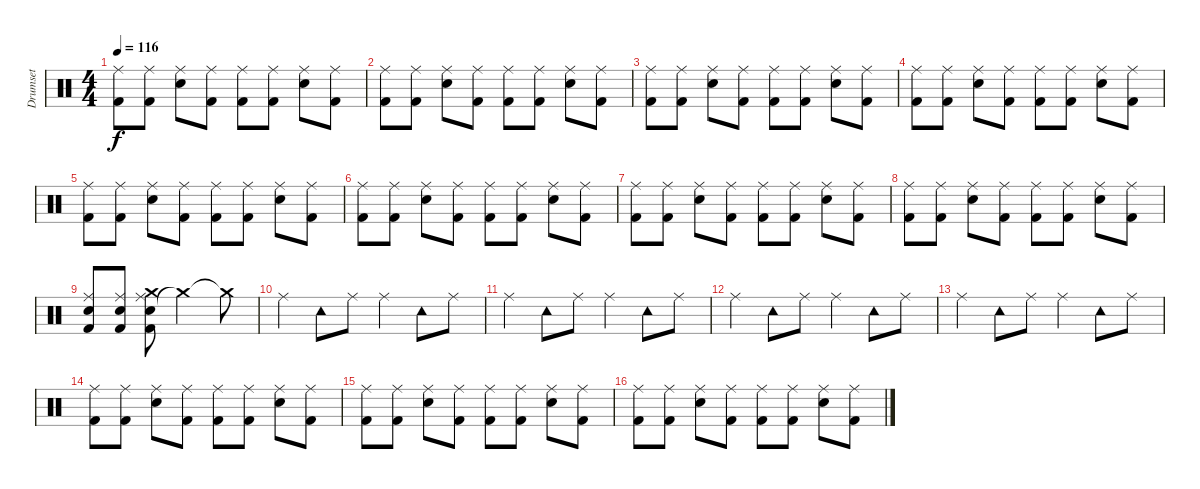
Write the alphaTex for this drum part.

\track ("Drumset" "Drumset") {instrument percussion}
\staff {score}
\articulation defaults
\ts (4 4)
\tempo 116
\clef neutral
\ks c
("Kick (hit) 2" "Ride (middle)").8{dy f} ("Kick (hit) 2" "Ride (middle)").8 ("Electric Snare (hit)" "Ride (middle)").8 ("Kick (hit) 2" "Ride (middle)").8 ("Kick (hit) 2" "Ride (middle)").8 ("Kick (hit) 2" "Ride (middle)").8 ("Electric Snare (hit)" "Ride (middle)").8 ("Kick (hit) 2" "Ride (middle)").8 |
("Kick (hit) 2" "Ride (middle)").8 ("Kick (hit) 2" "Ride (middle)").8 ("Electric Snare (hit)" "Ride (middle)").8 ("Kick (hit) 2" "Ride (middle)").8 ("Kick (hit) 2" "Ride (middle)").8 ("Kick (hit) 2" "Ride (middle)").8 ("Electric Snare (hit)" "Ride (middle)").8 ("Kick (hit) 2" "Ride (middle)").8 |
("Kick (hit) 2" "Ride (middle)").8 ("Kick (hit) 2" "Ride (middle)").8 ("Electric Snare (hit)" "Ride (middle)").8 ("Kick (hit) 2" "Ride (middle)").8 ("Kick (hit) 2" "Ride (middle)").8 ("Kick (hit) 2" "Ride (middle)").8 ("Electric Snare (hit)" "Ride (middle)").8 ("Kick (hit) 2" "Ride (middle)").8 |
("Kick (hit) 2" "Ride (middle)").8 ("Kick (hit) 2" "Ride (middle)").8 ("Electric Snare (hit)" "Ride (middle)").8 ("Kick (hit) 2" "Ride (middle)").8 ("Kick (hit) 2" "Ride (middle)").8 ("Kick (hit) 2" "Ride (middle)").8 ("Electric Snare (hit)" "Ride (middle)").8 ("Kick (hit) 2" "Ride (middle)").8 |
("Kick (hit) 2" "Ride (middle)").8 ("Kick (hit) 2" "Ride (middle)").8 ("Electric Snare (hit)" "Ride (middle)").8 ("Kick (hit) 2" "Ride (middle)").8 ("Kick (hit) 2" "Ride (middle)").8 ("Kick (hit) 2" "Ride (middle)").8 ("Electric Snare (hit)" "Ride (middle)").8 ("Kick (hit) 2" "Ride (middle)").8 |
("Kick (hit) 2" "Ride (middle)").8 ("Kick (hit) 2" "Ride (middle)").8 ("Electric Snare (hit)" "Ride (middle)").8 ("Kick (hit) 2" "Ride (middle)").8 ("Kick (hit) 2" "Ride (middle)").8 ("Kick (hit) 2" "Ride (middle)").8 ("Electric Snare (hit)" "Ride (middle)").8 ("Kick (hit) 2" "Ride (middle)").8 |
("Kick (hit) 2" "Ride (middle)").8 ("Kick (hit) 2" "Ride (middle)").8 ("Electric Snare (hit)" "Ride (middle)").8 ("Kick (hit) 2" "Ride (middle)").8 ("Kick (hit) 2" "Ride (middle)").8 ("Kick (hit) 2" "Ride (middle)").8 ("Electric Snare (hit)" "Ride (middle)").8 ("Kick (hit) 2" "Ride (middle)").8 |
("Kick (hit) 2" "Ride (middle)").8 ("Kick (hit) 2" "Ride (middle)").8 ("Electric Snare (hit)" "Ride (middle)").8 ("Kick (hit) 2" "Ride (middle)").8 ("Kick (hit) 2" "Ride (middle)").8 ("Kick (hit) 2" "Ride (middle)").8 ("Electric Snare (hit)" "Ride (middle)").8 ("Kick (hit) 2" "Ride (middle)").8 |
("Electric Snare (hit)" "Kick (hit) 2" "Ride (middle)").8 ("Electric Snare (hit)" "Kick (hit) 2" "Ride (middle)").8 ("Electric Snare (hit)" "Kick (hit) 2" "Ride (middle)" "Crash medium (hit)").8 "Crash medium (hit)"{t}.2 "Crash medium (hit)"{t}.8 |
"Ride (middle)".4 "Tambourine (hit)".8 "Ride (middle)".8 "Ride (middle)".4 "Tambourine (hit)".8 "Ride (middle)".8 |
"Ride (middle)".4 "Tambourine (hit)".8 "Ride (middle)".8 "Ride (middle)".4 "Tambourine (hit)".8 "Ride (middle)".8 |
"Ride (middle)".4 "Tambourine (hit)".8 "Ride (middle)".8 "Ride (middle)".4 "Tambourine (hit)".8 "Ride (middle)".8 |
"Ride (middle)".4 "Tambourine (hit)".8 "Ride (middle)".8 "Ride (middle)".4 "Tambourine (hit)".8 "Ride (middle)".8 |
("Kick (hit) 2" "Ride (middle)").8 ("Kick (hit) 2" "Ride (middle)").8 ("Electric Snare (hit)" "Ride (middle)").8 ("Kick (hit) 2" "Ride (middle)").8 ("Kick (hit) 2" "Ride (middle)").8 ("Kick (hit) 2" "Ride (middle)").8 ("Electric Snare (hit)" "Ride (middle)").8 ("Kick (hit) 2" "Ride (middle)").8 |
("Kick (hit) 2" "Ride (middle)").8 ("Kick (hit) 2" "Ride (middle)").8 ("Electric Snare (hit)" "Ride (middle)").8 ("Kick (hit) 2" "Ride (middle)").8 ("Kick (hit) 2" "Ride (middle)").8 ("Kick (hit) 2" "Ride (middle)").8 ("Electric Snare (hit)" "Ride (middle)").8 ("Kick (hit) 2" "Ride (middle)").8 |
("Kick (hit) 2" "Ride (middle)").8 ("Kick (hit) 2" "Ride (middle)").8 ("Electric Snare (hit)" "Ride (middle)").8 ("Kick (hit) 2" "Ride (middle)").8 ("Kick (hit) 2" "Ride (middle)").8 ("Kick (hit) 2" "Ride (middle)").8 ("Electric Snare (hit)" "Ride (middle)").8 ("Kick (hit) 2" "Ride (middle)").8
